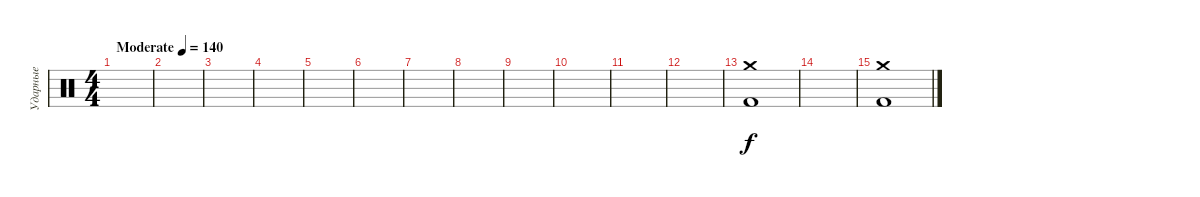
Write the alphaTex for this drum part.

\track ("Ударные" "Ударные") {instrument percussion}
\staff {score}
\articulation defaults
\ts (4 4)
\tempo (140 "Moderate")
\clef neutral
\ks c
|
|
|
|
|
|
|
|
|
|
|
|
("Crash medium (hit)" "Kick (hit) 2").1 |
|
("Crash medium (hit)" "Kick (hit) 2").1
